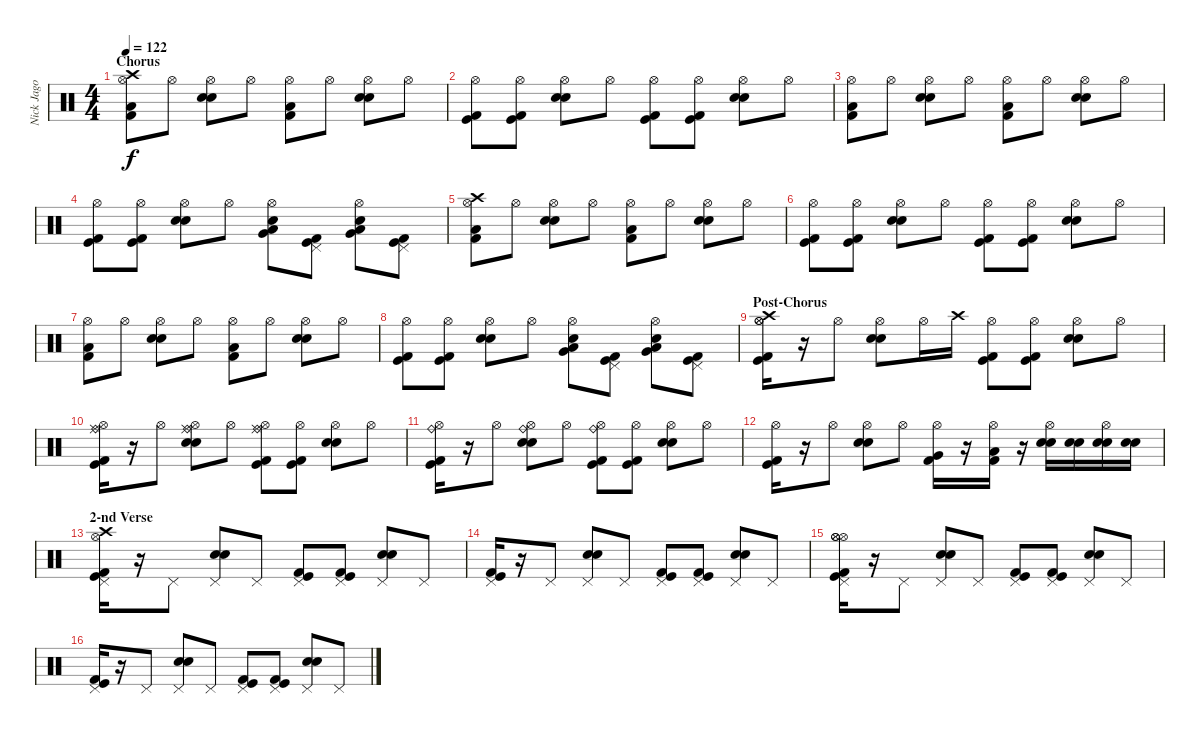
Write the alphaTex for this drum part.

\track ("Nick Jago - Drums" "Nick Jago ") {instrument percussion}
\staff {score}
\articulation defaults
\ts (4 4)
\section ("" "Chorus")
\tempo 122
\clef neutral
\ks c
("Hi-Hat (open)" "Crash high (hit)" "Low Floor Tom (hit)" "Kick (hit) 2").8{dy f} "Hi-Hat (open)".8 ("Hi-Hat (open)" "Snare (hit) 2" "Electric Snare (hit)").8 "Hi-Hat (open)".8 ("Hi-Hat (open)" "Low Floor Tom (hit)" "Kick (hit) 2").8 "Hi-Hat (open)".8 ("Hi-Hat (open)" "Snare (hit) 2" "Electric Snare (hit)").8 "Hi-Hat (open)".8 |
("Hi-Hat (open)" "Kick (hit)" "Kick (hit) 2").8 ("Hi-Hat (open)" "Kick (hit)" "Kick (hit) 2").8 ("Hi-Hat (open)" "Snare (hit) 2" "Electric Snare (hit)").8 "Hi-Hat (open)".8 ("Hi-Hat (open)" "Kick (hit)" "Kick (hit) 2").8 ("Hi-Hat (open)" "Kick (hit)" "Kick (hit) 2").8 ("Hi-Hat (open)" "Snare (hit) 2" "Electric Snare (hit)").8 "Hi-Hat (open)".8 |
("Hi-Hat (open)" "Low Floor Tom (hit)" "Kick (hit) 2").8 "Hi-Hat (open)".8 ("Hi-Hat (open)" "Snare (hit) 2" "Electric Snare (hit)").8 "Hi-Hat (open)".8 ("Hi-Hat (open)" "Low Floor Tom (hit)" "Kick (hit) 2").8 "Hi-Hat (open)".8 ("Hi-Hat (open)" "Snare (hit) 2" "Electric Snare (hit)").8 "Hi-Hat (open)".8 |
("Hi-Hat (open)" "Kick (hit)" "Kick (hit) 2").8 ("Hi-Hat (open)" "Kick (hit)" "Kick (hit) 2").8 ("Hi-Hat (open)" "Snare (hit) 2" "Electric Snare (hit)").8 "Hi-Hat (open)".8 ("Hi-Hat (open)" "Electric Snare (hit)" "Low Floor Tom (hit)" "Very Low Tom (hit)").8 ("Pedal Hi-Hat (hit)" "Kick (hit)" "Kick (hit) 2").8 ("Hi-Hat (open)" "Electric Snare (hit)" "Very Low Tom (hit)" "Low Floor Tom (hit)").8 ("Pedal Hi-Hat (hit)" "Kick (hit)" "Kick (hit) 2").8 |
("Hi-Hat (open)" "Crash high (hit)" "Low Floor Tom (hit)" "Kick (hit) 2").8 "Hi-Hat (open)".8 ("Hi-Hat (open)" "Snare (hit) 2" "Electric Snare (hit)").8 "Hi-Hat (open)".8 ("Hi-Hat (open)" "Low Floor Tom (hit)" "Kick (hit) 2").8 "Hi-Hat (open)".8 ("Hi-Hat (open)" "Snare (hit) 2" "Electric Snare (hit)").8 "Hi-Hat (open)".8 |
("Hi-Hat (open)" "Kick (hit)" "Kick (hit) 2").8 ("Hi-Hat (open)" "Kick (hit)" "Kick (hit) 2").8 ("Hi-Hat (open)" "Snare (hit) 2" "Electric Snare (hit)").8 "Hi-Hat (open)".8 ("Hi-Hat (open)" "Kick (hit)" "Kick (hit) 2").8 ("Hi-Hat (open)" "Kick (hit)" "Kick (hit) 2").8 ("Hi-Hat (open)" "Snare (hit) 2" "Electric Snare (hit)").8 "Hi-Hat (open)".8 |
("Hi-Hat (open)" "Low Floor Tom (hit)" "Kick (hit) 2").8 "Hi-Hat (open)".8 ("Hi-Hat (open)" "Snare (hit) 2" "Electric Snare (hit)").8 "Hi-Hat (open)".8 ("Hi-Hat (open)" "Low Floor Tom (hit)" "Kick (hit) 2").8 "Hi-Hat (open)".8 ("Hi-Hat (open)" "Snare (hit) 2" "Electric Snare (hit)").8 "Hi-Hat (open)".8 |
("Hi-Hat (open)" "Kick (hit)" "Kick (hit) 2").8 ("Hi-Hat (open)" "Kick (hit)" "Kick (hit) 2").8 ("Hi-Hat (open)" "Snare (hit) 2" "Electric Snare (hit)").8 "Hi-Hat (open)".8 ("Hi-Hat (open)" "Electric Snare (hit)" "Low Floor Tom (hit)" "Very Low Tom (hit)").8 ("Pedal Hi-Hat (hit)" "Kick (hit)" "Kick (hit) 2").8 ("Hi-Hat (open)" "Electric Snare (hit)" "Very Low Tom (hit)" "Low Floor Tom (hit)").8 ("Pedal Hi-Hat (hit)" "Kick (hit)" "Kick (hit) 2").8 |
\section ("" "Post-Chorus")
("Hi-Hat (open)" "Hi-Hat (open)" "Crash high (hit)" "Kick (hit)" "Kick (hit) 2").16 r.16 "Hi-Hat (open)".8 ("Hi-Hat (open)" "Snare (hit) 2" "Electric Snare (hit)").8 "Hi-Hat (open)".16 "Crash high (hit)".16 ("Hi-Hat (open)" "Kick (hit)" "Kick (hit) 2").8 ("Hi-Hat (open)" "Kick (hit)" "Kick (hit) 2").8 ("Hi-Hat (open)" "Snare (hit) 2" "Electric Snare (hit)").8 "Hi-Hat (open)".8 |
("Hi-Hat (open)" "Ride (middle)" "Ride (bell)" "Kick (hit)" "Kick (hit) 2").16 r.16 "Hi-Hat (open)".8 ("Hi-Hat (open)" "Ride (middle)" "Ride (bell)" "Snare (hit) 2" "Electric Snare (hit)").8 "Hi-Hat (open)".8 ("Hi-Hat (open)" "Ride (middle)" "Ride (bell)" "Kick (hit)" "Kick (hit) 2").8 ("Hi-Hat (open)" "Kick (hit)" "Kick (hit) 2").8 ("Hi-Hat (open)" "Snare (hit) 2" "Electric Snare (hit)").8 "Hi-Hat (open)".8 |
("Hi-Hat (open)" "Ride (bell)" "Kick (hit)" "Kick (hit) 2").16 r.16 "Hi-Hat (open)".8 ("Hi-Hat (open)" "Ride (bell)" "Snare (hit) 2" "Electric Snare (hit)").8 "Hi-Hat (open)".8 ("Hi-Hat (open)" "Ride (bell)" "Kick (hit)" "Kick (hit) 2").8 ("Hi-Hat (open)" "Kick (hit)" "Kick (hit) 2").8 ("Hi-Hat (open)" "Snare (hit) 2" "Electric Snare (hit)").8 "Hi-Hat (open)".8 |
("Hi-Hat (open)" "Kick (hit)" "Kick (hit) 2").16 r.16 "Hi-Hat (open)".8 ("Hi-Hat (open)" "Snare (hit) 2" "Electric Snare (hit)").8 "Hi-Hat (open)".8 ("Hi-Hat (open)" "Kick (hit) 2" "Very Low Tom (hit)").16 r.16 ("Hi-Hat (open)" "Kick (hit) 2" "Low Floor Tom (hit)").16 r.16 ("Hi-Hat (open)" "Snare (hit) 2" "Electric Snare (hit)").16 ("Snare (hit) 2" "Electric Snare (hit)").16 ("Hi-Hat (open)" "Snare (hit) 2" "Electric Snare (hit)").16 ("Snare (hit) 2" "Electric Snare (hit)").16 |
\section ("" "2-nd Verse")
("Pedal Hi-Hat (hit)" "Hi-Hat (open)" "Crash high (hit)" "Kick (hit)" "Kick (hit) 2").16 r.16 "Pedal Hi-Hat (hit)".8 ("Pedal Hi-Hat (hit)" "Snare (hit) 2" "Electric Snare (hit)").8 "Pedal Hi-Hat (hit)".8 ("Pedal Hi-Hat (hit)" "Kick (hit)" "Kick (hit) 2").8 ("Pedal Hi-Hat (hit)" "Kick (hit)" "Kick (hit) 2").8 ("Pedal Hi-Hat (hit)" "Snare (hit) 2" "Electric Snare (hit)").8 "Pedal Hi-Hat (hit)".8 |
("Pedal Hi-Hat (hit)" "Kick (hit)" "Kick (hit) 2").16 r.16 "Pedal Hi-Hat (hit)".8 ("Pedal Hi-Hat (hit)" "Snare (hit) 2" "Electric Snare (hit)").8 "Pedal Hi-Hat (hit)".8 ("Pedal Hi-Hat (hit)" "Kick (hit)" "Kick (hit) 2").8 ("Pedal Hi-Hat (hit)" "Kick (hit)" "Kick (hit) 2").8 ("Pedal Hi-Hat (hit)" "Snare (hit) 2" "Electric Snare (hit)").8 "Pedal Hi-Hat (hit)".8 |
("Pedal Hi-Hat (hit)" "Hi-Hat (open)" "Hi-Hat (open)" "Hi-Hat (open)" "Kick (hit)" "Kick (hit) 2").16 r.16 "Pedal Hi-Hat (hit)".8 ("Pedal Hi-Hat (hit)" "Snare (hit) 2" "Electric Snare (hit)").8 "Pedal Hi-Hat (hit)".8 ("Pedal Hi-Hat (hit)" "Kick (hit)" "Kick (hit) 2").8 ("Pedal Hi-Hat (hit)" "Kick (hit)" "Kick (hit) 2").8 ("Pedal Hi-Hat (hit)" "Snare (hit) 2" "Electric Snare (hit)").8 "Pedal Hi-Hat (hit)".8 |
("Pedal Hi-Hat (hit)" "Kick (hit)" "Kick (hit) 2").16 r.16 "Pedal Hi-Hat (hit)".8 ("Pedal Hi-Hat (hit)" "Snare (hit) 2" "Electric Snare (hit)").8 "Pedal Hi-Hat (hit)".8 ("Pedal Hi-Hat (hit)" "Kick (hit)" "Kick (hit) 2").8 ("Pedal Hi-Hat (hit)" "Kick (hit)" "Kick (hit) 2").8 ("Pedal Hi-Hat (hit)" "Snare (hit) 2" "Electric Snare (hit)").8 "Pedal Hi-Hat (hit)".8
